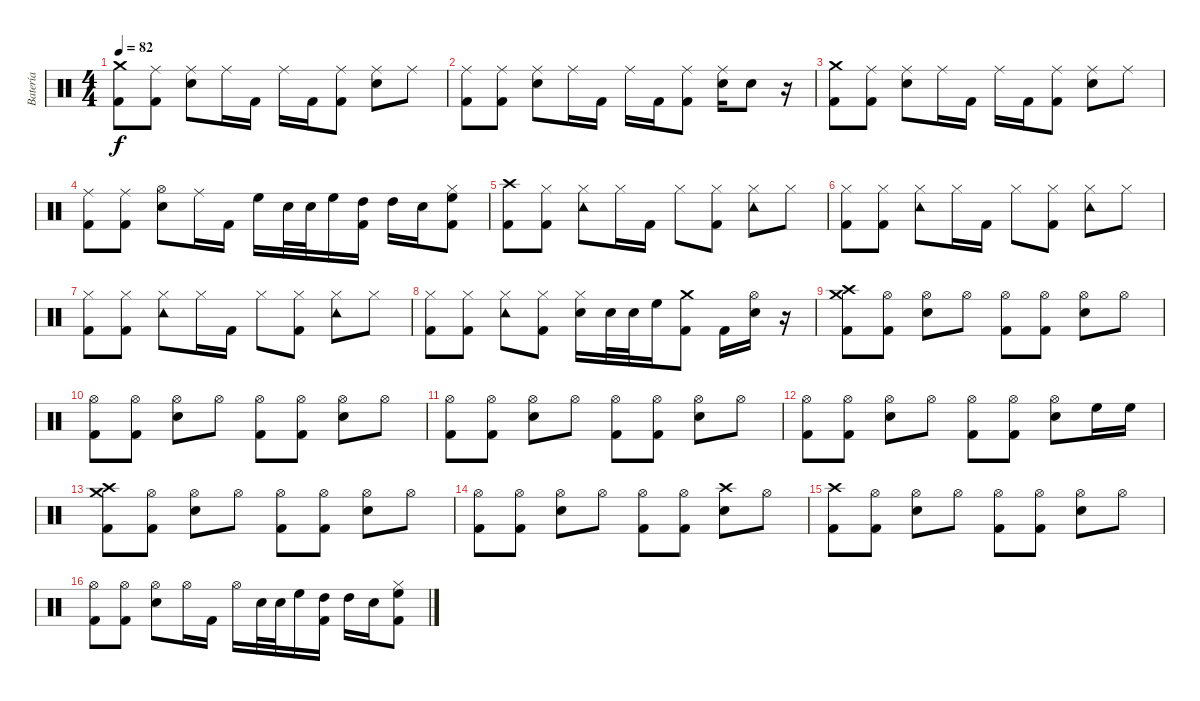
\track ("Batería" "Batería") {instrument percussion}
\staff {score}
\articulation defaults
\ts (4 4)
\tempo 82
\clef neutral
\ks c
("Crash medium (hit)" "Kick (hit) 2").8{dy f} ("Ride (middle)" "Kick (hit) 2").8 ("Ride (middle)" "Electric Snare (hit)").8 "Ride (middle)".16 "Kick (hit) 2".16 "Ride (middle)".16 "Kick (hit) 2".16 ("Ride (middle)" "Kick (hit) 2").8 ("Ride (middle)" "Electric Snare (hit)").8 "Ride (middle)".8 |
("Ride (middle)" "Kick (hit) 2").8 ("Ride (middle)" "Kick (hit) 2").8 ("Ride (middle)" "Electric Snare (hit)").8 "Ride (middle)".16 "Kick (hit) 2".16 "Ride (middle)".16 "Kick (hit) 2".16 ("Ride (middle)" "Kick (hit) 2").8 ("Ride (middle)" "Electric Snare (hit)").16 "Electric Snare (hit)".8 r.16 |
("Crash medium (hit)" "Kick (hit) 2").8 ("Ride (middle)" "Kick (hit) 2").8 ("Ride (middle)" "Electric Snare (hit)").8 "Ride (middle)".16 "Kick (hit) 2".16 "Ride (middle)".16 "Kick (hit) 2".16 ("Ride (middle)" "Kick (hit) 2").8 ("Ride (middle)" "Electric Snare (hit)").8 "Ride (middle)".8 |
("Ride (middle)" "Kick (hit) 2").8 ("Ride (middle)" "Kick (hit) 2").8 ("Hi-Hat (open)" "Electric Snare (hit)").8 "Ride (middle)".16 "Kick (hit) 2".16 "High Floor Tom (hit)".16 "Electric Snare (hit)".32 "Electric Snare (hit)".32 "High Floor Tom (hit)".16 ("Kick (hit) 2" "High Tom (hit)").16 "High Tom (hit)".16 "Electric Snare (hit)".16 ("Kick (hit) 2" "High Floor Tom (hit)" "Hi-Hat (closed)").8 |
("Crash high (hit)" "Kick (hit) 2").8 ("Hi-Hat (closed)" "Kick (hit) 2").8{volume 11} ("Hi-Hat (closed)" "Tambourine (hit)").8 "Hi-Hat (closed)".16 "Kick (hit) 2".16 "Hi-Hat (closed)".8 ("Hi-Hat (closed)" "Kick (hit) 2").8 ("Hi-Hat (closed)" "Tambourine (hit)").8 "Hi-Hat (closed)".8 |
("Hi-Hat (closed)" "Kick (hit) 2").8 ("Hi-Hat (closed)" "Kick (hit) 2").8 ("Hi-Hat (closed)" "Tambourine (hit)").8 "Hi-Hat (closed)".16 "Kick (hit) 2".16 "Hi-Hat (closed)".8 ("Hi-Hat (closed)" "Kick (hit) 2").8 ("Hi-Hat (closed)" "Tambourine (hit)").8 "Hi-Hat (closed)".8 |
("Hi-Hat (closed)" "Kick (hit) 2").8 ("Hi-Hat (closed)" "Kick (hit) 2").8 ("Hi-Hat (closed)" "Tambourine (hit)").8 "Hi-Hat (closed)".16 "Kick (hit) 2".16 "Hi-Hat (closed)".8 ("Hi-Hat (closed)" "Kick (hit) 2").8 ("Hi-Hat (closed)" "Tambourine (hit)").8 "Hi-Hat (closed)".8 |
("Hi-Hat (closed)" "Kick (hit) 2").8 ("Hi-Hat (closed)" "Kick (hit) 2").8 ("Hi-Hat (closed)" "Tambourine (hit)").8 ("Hi-Hat (closed)" "Kick (hit) 2").8 ("Hi-Hat (closed)" "Electric Snare (hit)").16{volume 14} "Electric Snare (hit)".32 "Electric Snare (hit)".32 "High Floor Tom (hit)".16 ("Crash medium (hit)" "Kick (hit) 2").8 "Kick (hit) 2".16 ("Hi-Hat (open)" "Electric Snare (hit)").16 r.16 |
("Crash high (hit)" "Crash medium (hit)" "Kick (hit) 2").8 ("Hi-Hat (open)" "Kick (hit) 2").8 ("Hi-Hat (open)" "Electric Snare (hit)").8 "Hi-Hat (open)".8 ("Hi-Hat (open)" "Kick (hit) 2").8 ("Hi-Hat (open)" "Kick (hit) 2").8 ("Hi-Hat (open)" "Electric Snare (hit)").8 "Hi-Hat (open)".8 |
("Hi-Hat (open)" "Kick (hit) 2").8 ("Hi-Hat (open)" "Kick (hit) 2").8 ("Hi-Hat (open)" "Electric Snare (hit)").8 "Hi-Hat (open)".8 ("Hi-Hat (open)" "Kick (hit) 2").8 ("Hi-Hat (open)" "Kick (hit) 2").8 ("Hi-Hat (open)" "Electric Snare (hit)").8 "Hi-Hat (open)".8 |
("Hi-Hat (open)" "Kick (hit) 2").8 ("Hi-Hat (open)" "Kick (hit) 2").8 ("Hi-Hat (open)" "Electric Snare (hit)").8 "Hi-Hat (open)".8 ("Hi-Hat (open)" "Kick (hit) 2").8 ("Hi-Hat (open)" "Kick (hit) 2").8 ("Hi-Hat (open)" "Electric Snare (hit)").8 "Hi-Hat (open)".8 |
("Hi-Hat (open)" "Kick (hit) 2").8 ("Hi-Hat (open)" "Kick (hit) 2").8 ("Hi-Hat (open)" "Electric Snare (hit)").8 "Hi-Hat (open)".8 ("Hi-Hat (open)" "Kick (hit) 2").8 ("Hi-Hat (open)" "Kick (hit) 2").8 ("Hi-Hat (open)" "Electric Snare (hit)").8 "High Floor Tom (hit)".16 "High Floor Tom (hit)".16 |
("Crash high (hit)" "Crash medium (hit)" "Kick (hit) 2").8 ("Hi-Hat (open)" "Kick (hit) 2").8 ("Hi-Hat (open)" "Electric Snare (hit)").8 "Hi-Hat (open)".8 ("Hi-Hat (open)" "Kick (hit) 2").8 ("Hi-Hat (open)" "Kick (hit) 2").8 ("Hi-Hat (open)" "Electric Snare (hit)").8 "Hi-Hat (open)".8 |
("Hi-Hat (open)" "Kick (hit) 2").8 ("Hi-Hat (open)" "Kick (hit) 2").8 ("Hi-Hat (open)" "Electric Snare (hit)").8 "Hi-Hat (open)".8 ("Hi-Hat (open)" "Kick (hit) 2").8 ("Hi-Hat (open)" "Kick (hit) 2").8 ("Crash high (hit)" "Electric Snare (hit)").8 "Hi-Hat (open)".8 |
("Crash high (hit)" "Kick (hit) 2").8 ("Hi-Hat (open)" "Kick (hit) 2").8 ("Hi-Hat (open)" "Electric Snare (hit)").8 "Hi-Hat (open)".8 ("Hi-Hat (open)" "Kick (hit) 2").8 ("Hi-Hat (open)" "Kick (hit) 2").8 ("Hi-Hat (open)" "Electric Snare (hit)").8 "Hi-Hat (open)".8 |
("Hi-Hat (open)" "Kick (hit) 2").8 ("Hi-Hat (open)" "Kick (hit) 2").8 ("Hi-Hat (open)" "Electric Snare (hit)").8 "Hi-Hat (open)".16 "Kick (hit) 2".16 "Hi-Hat (open)".16 "Electric Snare (hit)".32 "Electric Snare (hit)".32 "High Floor Tom (hit)".16 ("Kick (hit) 2" "High Tom (hit)").16 "High Tom (hit)".16 "Electric Snare (hit)".16 ("Kick (hit) 2" "High Floor Tom (hit)" "Hi-Hat (closed)").8
